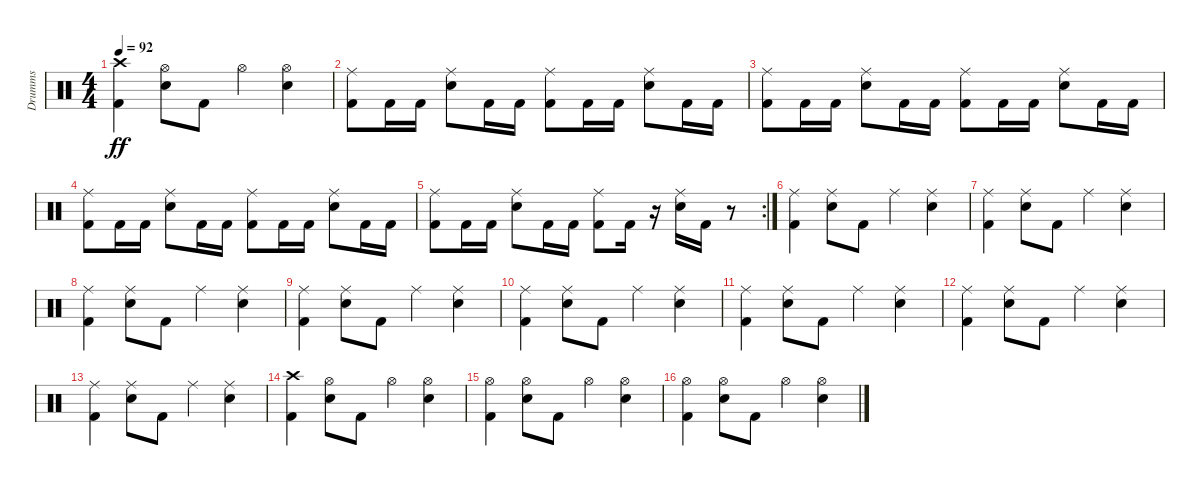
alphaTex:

\track ("Drumms" "Drumms") {instrument percussion}
\staff {score}
\articulation defaults
\ts (4 4)
\tempo 92
\clef neutral
\ks c
("Crash high (hit)" "Kick (hit) 2").4{dy ff} ("Hi-Hat (open)" "Electric Snare (hit)").8 "Kick (hit) 2".8 "Hi-Hat (open)".4 ("Hi-Hat (open)" "Electric Snare (hit)").4 |
("Ride (middle)" "Kick (hit) 2").8 "Kick (hit) 2".16 "Kick (hit) 2".16 ("Ride (middle)" "Electric Snare (hit)").8 "Kick (hit) 2".16 "Kick (hit) 2".16 ("Ride (middle)" "Kick (hit) 2").8 "Kick (hit) 2".16 "Kick (hit) 2".16 ("Ride (middle)" "Electric Snare (hit)").8 "Kick (hit) 2".16 "Kick (hit) 2".16 |
("Ride (middle)" "Kick (hit) 2").8 "Kick (hit) 2".16 "Kick (hit) 2".16 ("Ride (middle)" "Electric Snare (hit)").8 "Kick (hit) 2".16 "Kick (hit) 2".16 ("Ride (middle)" "Kick (hit) 2").8 "Kick (hit) 2".16 "Kick (hit) 2".16 ("Ride (middle)" "Electric Snare (hit)").8 "Kick (hit) 2".16 "Kick (hit) 2".16 |
("Ride (middle)" "Kick (hit) 2").8 "Kick (hit) 2".16 "Kick (hit) 2".16 ("Ride (middle)" "Electric Snare (hit)").8 "Kick (hit) 2".16 "Kick (hit) 2".16 ("Ride (middle)" "Kick (hit) 2").8 "Kick (hit) 2".16 "Kick (hit) 2".16 ("Ride (middle)" "Electric Snare (hit)").8 "Kick (hit) 2".16 "Kick (hit) 2".16 |
\rc 2
("Ride (middle)" "Kick (hit) 2").8 "Kick (hit) 2".16 "Kick (hit) 2".16 ("Ride (middle)" "Electric Snare (hit)").8 "Kick (hit) 2".16 "Kick (hit) 2".16 ("Ride (middle)" "Kick (hit) 2").8 "Kick (hit) 2".16 r.16 ("Ride (middle)" "Electric Snare (hit)").16 "Kick (hit) 2".16 r.8 |
("Ride (middle)" "Kick (hit) 2").4 ("Ride (middle)" "Electric Snare (hit)").8 "Kick (hit) 2".8 "Ride (middle)".4 ("Ride (middle)" "Electric Snare (hit)").4 |
("Ride (middle)" "Kick (hit) 2").4 ("Ride (middle)" "Electric Snare (hit)").8 "Kick (hit) 2".8 "Ride (middle)".4 ("Ride (middle)" "Electric Snare (hit)").4 |
("Ride (middle)" "Kick (hit) 2").4 ("Ride (middle)" "Electric Snare (hit)").8 "Kick (hit) 2".8 "Ride (middle)".4 ("Ride (middle)" "Electric Snare (hit)").4 |
("Ride (middle)" "Kick (hit) 2").4 ("Ride (middle)" "Electric Snare (hit)").8 "Kick (hit) 2".8 "Ride (middle)".4 ("Ride (middle)" "Electric Snare (hit)").4 |
("Ride (middle)" "Kick (hit) 2").4 ("Ride (middle)" "Electric Snare (hit)").8 "Kick (hit) 2".8 "Ride (middle)".4 ("Ride (middle)" "Electric Snare (hit)").4 |
("Ride (middle)" "Kick (hit) 2").4 ("Ride (middle)" "Electric Snare (hit)").8 "Kick (hit) 2".8 "Ride (middle)".4 ("Ride (middle)" "Electric Snare (hit)").4 |
("Ride (middle)" "Kick (hit) 2").4 ("Ride (middle)" "Electric Snare (hit)").8 "Kick (hit) 2".8 "Ride (middle)".4 ("Ride (middle)" "Electric Snare (hit)").4 |
("Ride (middle)" "Kick (hit) 2").4 ("Ride (middle)" "Electric Snare (hit)").8 "Kick (hit) 2".8 "Ride (middle)".4 ("Ride (middle)" "Electric Snare (hit)").4 |
("Crash high (hit)" "Kick (hit) 2").4 ("Hi-Hat (open)" "Electric Snare (hit)").8 "Kick (hit) 2".8 "Hi-Hat (open)".4 ("Hi-Hat (open)" "Electric Snare (hit)").4 |
("Hi-Hat (open)" "Kick (hit) 2").4 ("Hi-Hat (open)" "Electric Snare (hit)").8 "Kick (hit) 2".8 "Hi-Hat (open)".4 ("Hi-Hat (open)" "Electric Snare (hit)").4 |
("Hi-Hat (open)" "Kick (hit) 2").4 ("Hi-Hat (open)" "Electric Snare (hit)").8 "Kick (hit) 2".8 "Hi-Hat (open)".4 ("Hi-Hat (open)" "Electric Snare (hit)").4
